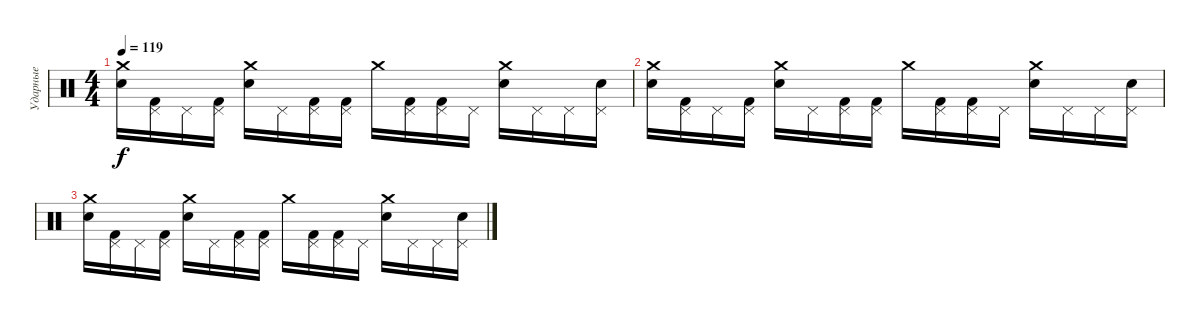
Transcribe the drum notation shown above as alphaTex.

\track ("Ударные" "Ударные") {instrument percussion}
\staff {score}
\articulation defaults
\ts (4 4)
\tempo 119
\clef neutral
\ks c
("Crash medium (hit)" "Electric Snare (hit)").16{dy f} ("Pedal Hi-Hat (hit)" "Kick (hit) 2").16 "Pedal Hi-Hat (hit)".16 ("Pedal Hi-Hat (hit)" "Kick (hit) 2").16 ("Crash medium (hit)" "Electric Snare (hit)").16 "Pedal Hi-Hat (hit)".16 ("Pedal Hi-Hat (hit)" "Kick (hit) 2").16 ("Pedal Hi-Hat (hit)" "Kick (hit) 2").16 "Crash medium (hit)".16 ("Pedal Hi-Hat (hit)" "Kick (hit) 2").16 ("Pedal Hi-Hat (hit)" "Kick (hit) 2").16 "Pedal Hi-Hat (hit)".16 ("Crash medium (hit)" "Electric Snare (hit)").16 "Pedal Hi-Hat (hit)".16 "Pedal Hi-Hat (hit)".16 ("Pedal Hi-Hat (hit)" "Electric Snare (hit)").16 |
("Crash medium (hit)" "Electric Snare (hit)").16 ("Pedal Hi-Hat (hit)" "Kick (hit) 2").16 "Pedal Hi-Hat (hit)".16 ("Pedal Hi-Hat (hit)" "Kick (hit) 2").16 ("Crash medium (hit)" "Electric Snare (hit)").16 "Pedal Hi-Hat (hit)".16 ("Pedal Hi-Hat (hit)" "Kick (hit) 2").16 ("Pedal Hi-Hat (hit)" "Kick (hit) 2").16 "Crash medium (hit)".16 ("Pedal Hi-Hat (hit)" "Kick (hit) 2").16 ("Pedal Hi-Hat (hit)" "Kick (hit) 2").16 "Pedal Hi-Hat (hit)".16 ("Crash medium (hit)" "Electric Snare (hit)").16 "Pedal Hi-Hat (hit)".16 "Pedal Hi-Hat (hit)".16 ("Pedal Hi-Hat (hit)" "Electric Snare (hit)").16 |
("Crash medium (hit)" "Electric Snare (hit)").16 ("Pedal Hi-Hat (hit)" "Kick (hit) 2").16 "Pedal Hi-Hat (hit)".16 ("Pedal Hi-Hat (hit)" "Kick (hit) 2").16 ("Crash medium (hit)" "Electric Snare (hit)").16 "Pedal Hi-Hat (hit)".16 ("Pedal Hi-Hat (hit)" "Kick (hit) 2").16 ("Pedal Hi-Hat (hit)" "Kick (hit) 2").16 "Crash medium (hit)".16 ("Pedal Hi-Hat (hit)" "Kick (hit) 2").16 ("Pedal Hi-Hat (hit)" "Kick (hit) 2").16 "Pedal Hi-Hat (hit)".16 ("Crash medium (hit)" "Electric Snare (hit)").16 "Pedal Hi-Hat (hit)".16 "Pedal Hi-Hat (hit)".16 ("Pedal Hi-Hat (hit)" "Electric Snare (hit)").16
